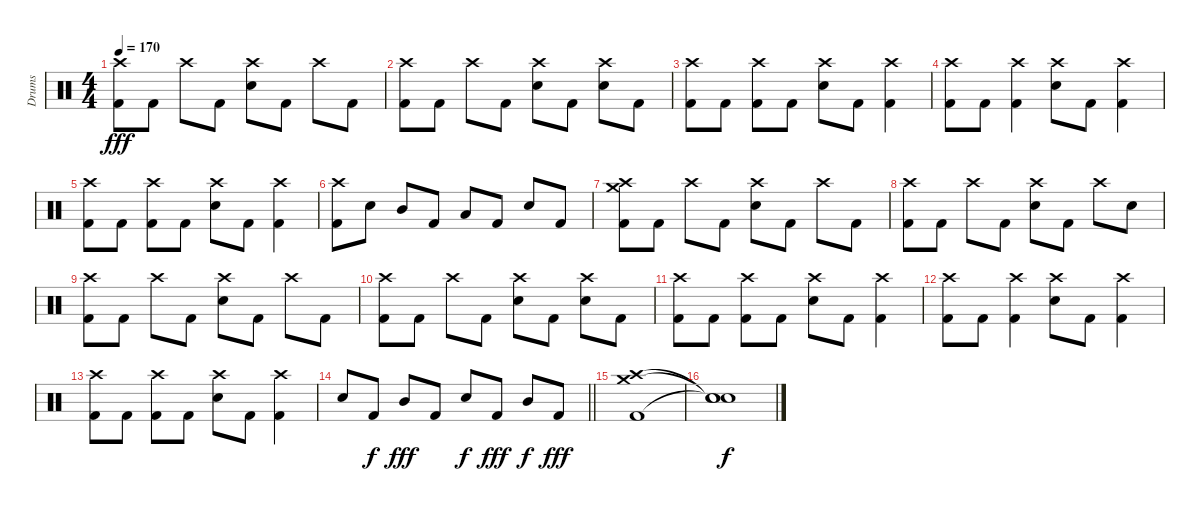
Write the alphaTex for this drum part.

\track ("Drums" "Drums") {instrument percussion}
\staff {score}
\articulation defaults
\ts (4 4)
\tempo 170
\clef neutral
\ks c
("Crash high (hit)" "Kick (hit) 2").8{dy fff} "Kick (hit) 2".8 "Crash high (hit)".8 "Kick (hit) 2".8 ("Crash high (hit)" "Electric Snare (hit)").8 "Kick (hit) 2".8 "Crash high (hit)".8 "Kick (hit) 2".8 |
("Crash high (hit)" "Kick (hit) 2").8 "Kick (hit) 2".8 "Crash high (hit)".8 "Kick (hit) 2".8 ("Crash high (hit)" "Electric Snare (hit)").8 "Kick (hit) 2".8 ("Crash high (hit)" "Electric Snare (hit)").8 "Kick (hit) 2".8 |
("Crash high (hit)" "Kick (hit) 2").8 "Kick (hit) 2".8 ("Crash high (hit)" "Kick (hit) 2").8 "Kick (hit) 2".8 ("Crash high (hit)" "Electric Snare (hit)").8 "Kick (hit) 2".8 ("Crash high (hit)" "Kick (hit) 2").4 |
("Crash high (hit)" "Kick (hit) 2").8 "Kick (hit) 2".8 ("Crash high (hit)" "Kick (hit) 2").4 ("Crash high (hit)" "Electric Snare (hit)").8 "Kick (hit) 2".8 ("Crash high (hit)" "Kick (hit) 2").4 |
("Crash high (hit)" "Kick (hit) 2").8 "Kick (hit) 2".8 ("Crash high (hit)" "Kick (hit) 2").8 "Kick (hit) 2".8 ("Crash high (hit)" "Electric Snare (hit)").8 "Kick (hit) 2".8 ("Crash high (hit)" "Kick (hit) 2").4 |
("Crash high (hit)" "Kick (hit) 2").8 "Electric Snare (hit)".8 "Mid Tom (hit)".8 "Kick (hit) 2".8 "Low Tom (hit)".8 "Kick (hit) 2".8 "Electric Snare (hit)".8 "Kick (hit) 2".8 |
("Crash high (hit)" "Crash medium (hit)" "Kick (hit) 2").8 "Kick (hit) 2".8 "Crash high (hit)".8 "Kick (hit) 2".8 ("Crash high (hit)" "Electric Snare (hit)").8 "Kick (hit) 2".8 "Crash high (hit)".8 "Kick (hit) 2".8 |
("Crash high (hit)" "Kick (hit) 2").8 "Kick (hit) 2".8 "Crash high (hit)".8 "Kick (hit) 2".8 ("Crash high (hit)" "Electric Snare (hit)").8 "Kick (hit) 2".8 "Crash high (hit)".8 "Electric Snare (hit)".8 |
("Crash high (hit)" "Kick (hit) 2").8 "Kick (hit) 2".8 "Crash high (hit)".8 "Kick (hit) 2".8 ("Crash high (hit)" "Electric Snare (hit)").8 "Kick (hit) 2".8 "Crash high (hit)".8 "Kick (hit) 2".8 |
("Crash high (hit)" "Kick (hit) 2").8 "Kick (hit) 2".8 "Crash high (hit)".8 "Kick (hit) 2".8 ("Crash high (hit)" "Electric Snare (hit)").8 "Kick (hit) 2".8 ("Crash high (hit)" "Electric Snare (hit)").8 "Kick (hit) 2".8 |
("Crash high (hit)" "Kick (hit) 2").8 "Kick (hit) 2".8 ("Crash high (hit)" "Kick (hit) 2").8 "Kick (hit) 2".8 ("Crash high (hit)" "Electric Snare (hit)").8 "Kick (hit) 2".8 ("Crash high (hit)" "Kick (hit) 2").4 |
("Crash high (hit)" "Kick (hit) 2").8 "Kick (hit) 2".8 ("Crash high (hit)" "Kick (hit) 2").4 ("Crash high (hit)" "Electric Snare (hit)").8 "Kick (hit) 2".8 ("Crash high (hit)" "Kick (hit) 2").4 |
("Crash high (hit)" "Kick (hit) 2").8 "Kick (hit) 2".8 ("Crash high (hit)" "Kick (hit) 2").8 "Kick (hit) 2".8 ("Crash high (hit)" "Electric Snare (hit)").8 "Kick (hit) 2".8 ("Crash high (hit)" "Kick (hit) 2").4 |
\barLineRight lightlight "Electric Snare (hit)".8 "Kick (hit) 2".8{dy f} "Mid Tom (hit)".8{dy fff} "Kick (hit) 2".8 "Electric Snare (hit)".8{dy f} "Kick (hit) 2".8{dy fff} "Mid Tom (hit)".8{dy f} "Kick (hit) 2".8{dy fff}
|
("Crash high (hit)" "Crash medium (hit)" "Kick (hit) 2").1 |
("Snare (hit)"{t} "Snare (hit)"{t} "Snare (hit)"{t}).1{dy f}
